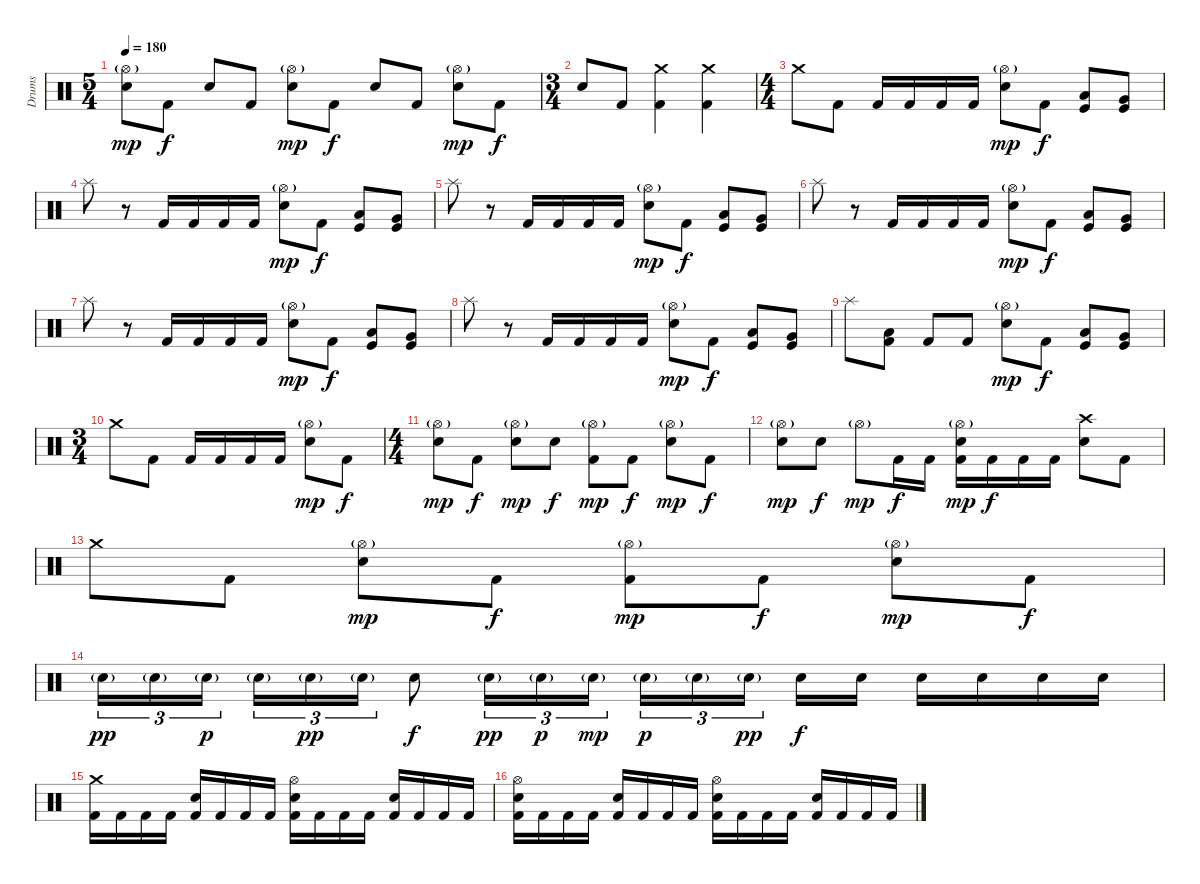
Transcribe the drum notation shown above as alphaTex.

\track ("Drums" "Drums") {instrument percussion}
\staff {score}
\articulation defaults
\ts (5 4)
\tempo 180
\clef neutral
\ks c
("Hi-Hat (open)"{g} "Electric Snare (hit)").8{dy mp} "Kick (hit) 2".8{dy f} "Electric Snare (hit)".8 "Kick (hit) 2".8 ("Hi-Hat (open)"{g} "Electric Snare (hit)").8{dy mp} "Kick (hit) 2".8{dy f} "Electric Snare (hit)".8 "Kick (hit) 2".8 ("Hi-Hat (open)"{g} "Electric Snare (hit)").8{dy mp} "Kick (hit) 2".8{dy f} |
\ts (3 4)
"Electric Snare (hit)".8 "Kick (hit) 2".8 ("Crash medium (hit)" "Kick (hit) 2").4 ("Crash medium (hit)" "Kick (hit) 2").4 |
\ts (4 4)
"Crash medium (hit)".8 "Kick (hit) 2".8 "Kick (hit) 2".16 "Kick (hit) 2".16 "Kick (hit) 2".16 "Kick (hit) 2".16 ("Hi-Hat (open)"{g} "Electric Snare (hit)").8{dy mp} "Kick (hit) 2".8{dy f} ("Low Tom (hit)" "Kick (hit)").8 ("Very Low Tom (hit)" "Kick (hit)").8 |
"Splash (hit)".8 r.8 "Kick (hit) 2".16 "Kick (hit) 2".16 "Kick (hit) 2".16 "Kick (hit) 2".16 ("Hi-Hat (open)"{g} "Electric Snare (hit)").8{dy mp} "Kick (hit) 2".8{dy f} ("Low Tom (hit)" "Kick (hit)").8 ("Very Low Tom (hit)" "Kick (hit)").8 |
"Splash (hit)".8 r.8 "Kick (hit) 2".16 "Kick (hit) 2".16 "Kick (hit) 2".16 "Kick (hit) 2".16 ("Hi-Hat (open)"{g} "Electric Snare (hit)").8{dy mp} "Kick (hit) 2".8{dy f} ("Low Tom (hit)" "Kick (hit)").8 ("Very Low Tom (hit)" "Kick (hit)").8 |
"Splash (hit)".8 r.8 "Kick (hit) 2".16 "Kick (hit) 2".16 "Kick (hit) 2".16 "Kick (hit) 2".16 ("Hi-Hat (open)"{g} "Electric Snare (hit)").8{dy mp} "Kick (hit) 2".8{dy f} ("Low Tom (hit)" "Kick (hit)").8 ("Very Low Tom (hit)" "Kick (hit)").8 |
"Splash (hit)".8 r.8 "Kick (hit) 2".16 "Kick (hit) 2".16 "Kick (hit) 2".16 "Kick (hit) 2".16 ("Hi-Hat (open)"{g} "Electric Snare (hit)").8{dy mp} "Kick (hit) 2".8{dy f} ("Low Tom (hit)" "Kick (hit)").8 ("Very Low Tom (hit)" "Kick (hit)").8 |
"Splash (hit)".8 r.8 "Kick (hit) 2".16 "Kick (hit) 2".16 "Kick (hit) 2".16 "Kick (hit) 2".16 ("Hi-Hat (open)"{g} "Electric Snare (hit)").8{dy mp} "Kick (hit) 2".8{dy f} ("Low Tom (hit)" "Kick (hit)").8 ("Very Low Tom (hit)" "Kick (hit)").8 |
"Splash (hit)".8 ("Low Tom (hit)" "Kick (hit) 2").8 "Kick (hit) 2".8 "Kick (hit) 2".8 ("Hi-Hat (open)"{g} "Electric Snare (hit)").8{dy mp} "Kick (hit) 2".8{dy f} ("Low Tom (hit)" "Kick (hit)").8 ("Very Low Tom (hit)" "Kick (hit)").8 |
\ts (3 4)
"Crash medium (hit)".8 "Kick (hit) 2".8 "Kick (hit) 2".16 "Kick (hit) 2".16 "Kick (hit) 2".16 "Kick (hit) 2".16 ("Hi-Hat (open)"{g} "Electric Snare (hit)").8{dy mp} "Kick (hit) 2".8{dy f} |
\ts (4 4)
("Hi-Hat (open)"{g} "Electric Snare (hit)").8{dy mp} "Kick (hit) 2".8{dy f} ("Hi-Hat (open)"{g} "Electric Snare (hit)").8{dy mp} "Electric Snare (hit)".8{dy f} ("Hi-Hat (open)"{g} "Kick (hit) 2").8{dy mp} "Kick (hit) 2".8{dy f} ("Hi-Hat (open)"{g} "Electric Snare (hit)").8{dy mp} "Kick (hit) 2".8{dy f} |
("Hi-Hat (open)"{g} "Electric Snare (hit)").8{dy mp} "Electric Snare (hit)".8{dy f} "Hi-Hat (open)"{g}.8{dy mp} "Kick (hit) 2".16{dy f} "Kick (hit) 2".16 ("Hi-Hat (open)"{g} "Electric Snare (hit)" "Kick (hit) 2").16{dy mp} "Kick (hit) 2".16{dy f} "Kick (hit) 2".16 "Kick (hit) 2".16 ("Crash high (hit)" "Electric Snare (hit)").8 "Kick (hit) 2".8 |
"Crash medium (hit)".8 "Kick (hit) 2".8 ("Hi-Hat (open)"{g} "Electric Snare (hit)").8{dy mp} "Kick (hit) 2".8{dy f} ("Hi-Hat (open)"{g} "Kick (hit) 2").8{dy mp} "Kick (hit) 2".8{dy f} ("Hi-Hat (open)"{g} "Electric Snare (hit)").8{dy mp} "Kick (hit) 2".8{dy f} |
"Electric Snare (hit)"{g}.16{tu (3 2) dy pp} "Electric Snare (hit)"{g}.16{tu (3 2)} "Electric Snare (hit)"{g}.16{tu (3 2) dy p beam splitsecondary} "Electric Snare (hit)"{g}.16{tu (3 2)} "Electric Snare (hit)"{g}.16{tu (3 2) dy pp} "Electric Snare (hit)"{g}.16{tu (3 2)} "Electric Snare (hit)".8{dy f} "Electric Snare (hit)"{g}.16{tu (3 2) dy pp} "Electric Snare (hit)"{g}.16{tu (3 2) dy p} "Electric Snare (hit)"{g}.16{tu (3 2) dy mp} "Electric Snare (hit)"{g}.16{tu (3 2) dy p} "Electric Snare (hit)"{g}.16{tu (3 2)} "Electric Snare (hit)"{g}.16{tu (3 2) dy pp beam splitsecondary} "Electric Snare (hit)".16{dy f} "Electric Snare (hit)".16 "Electric Snare (hit)".16 "Electric Snare (hit)".16 "Electric Snare (hit)".16 "Electric Snare (hit)".16 |
("Crash medium (hit)" "Kick (hit) 2").16 "Kick (hit) 2".16 "Kick (hit) 2".16 "Kick (hit) 2".16 ("Electric Snare (hit)" "Kick (hit) 2").16 "Kick (hit) 2".16 "Kick (hit) 2".16 "Kick (hit) 2".16 ("Hi-Hat (open)" "Electric Snare (hit)" "Kick (hit) 2").16 "Kick (hit) 2".16 "Kick (hit) 2".16 "Kick (hit) 2".16 ("Electric Snare (hit)" "Kick (hit) 2").16 "Kick (hit) 2".16 "Kick (hit) 2".16 "Kick (hit) 2".16 |
("Hi-Hat (open)" "Electric Snare (hit)" "Kick (hit) 2").16 "Kick (hit) 2".16 "Kick (hit) 2".16 "Kick (hit) 2".16 ("Electric Snare (hit)" "Kick (hit) 2").16 "Kick (hit) 2".16 "Kick (hit) 2".16 "Kick (hit) 2".16 ("Hi-Hat (open)" "Electric Snare (hit)" "Kick (hit) 2").16 "Kick (hit) 2".16 "Kick (hit) 2".16 "Kick (hit) 2".16 ("Electric Snare (hit)" "Kick (hit) 2").16 "Kick (hit) 2".16 "Kick (hit) 2".16 "Kick (hit) 2".16
